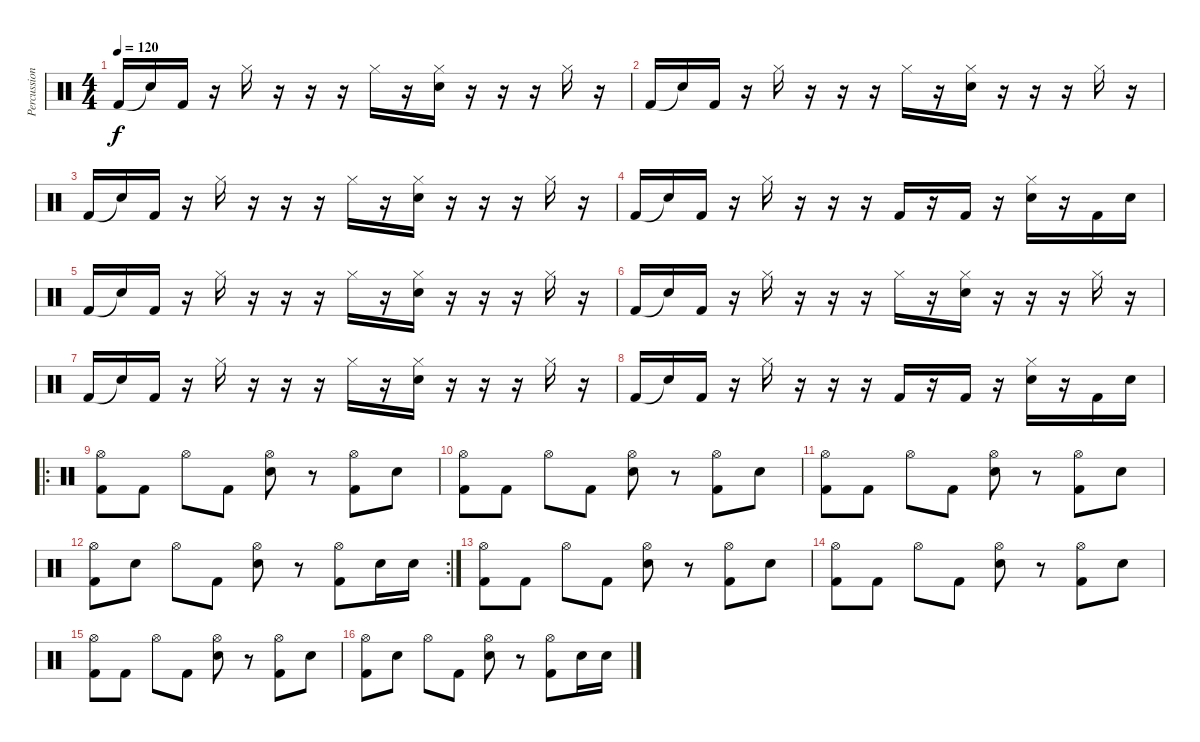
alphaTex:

\track ("Percussion" "Percussion") {instrument percussion}
\staff {score}
\articulation defaults
\ts (4 4)
\tempo 120
\clef neutral
\ks c "Kick (hit) 2".16{dy f volume 16} "Snare (hit)"{t}.16 "Kick (hit) 2".16
r.16 "Hi-Hat (closed)".16 r.16 r.16 r.16 "Hi-Hat (closed)".16 r.16 ("Hi-Hat (closed)" "Snare (hit) 2").16 r.16 r.16 r.16 "Hi-Hat (closed)".16 r.16 |
"Kick (hit) 2".16{volume 16} "Snare (hit)"{t}.16 "Kick (hit) 2".16 r.16 "Hi-Hat (closed)".16 r.16 r.16 r.16 "Hi-Hat (closed)".16 r.16 ("Hi-Hat (closed)" "Snare (hit) 2").16 r.16 r.16 r.16 "Hi-Hat (closed)".16 r.16 |
"Kick (hit) 2".16{volume 16} "Snare (hit)"{t}.16 "Kick (hit) 2".16 r.16 "Hi-Hat (closed)".16 r.16 r.16 r.16 "Hi-Hat (closed)".16 r.16 ("Hi-Hat (closed)" "Snare (hit) 2").16 r.16 r.16 r.16 "Hi-Hat (closed)".16 r.16 |
"Kick (hit) 2".16{volume 16} "Snare (hit)"{t}.16 "Kick (hit) 2".16 r.16 "Hi-Hat (closed)".16 r.16 r.16 r.16 "Kick (hit) 2".16 r.16 "Kick (hit) 2".16 r.16 ("Hi-Hat (closed)" "Snare (hit) 2").16 r.16 "Kick (hit) 2".16 "Snare (hit) 2".16 |
"Kick (hit) 2".16{volume 16} "Snare (hit)"{t}.16 "Kick (hit) 2".16 r.16 "Hi-Hat (closed)".16 r.16 r.16 r.16 "Hi-Hat (closed)".16 r.16 ("Hi-Hat (closed)" "Snare (hit) 2").16 r.16 r.16 r.16 "Hi-Hat (closed)".16 r.16 |
"Kick (hit) 2".16{volume 16} "Snare (hit)"{t}.16 "Kick (hit) 2".16 r.16 "Hi-Hat (closed)".16 r.16 r.16 r.16 "Hi-Hat (closed)".16 r.16 ("Hi-Hat (closed)" "Snare (hit) 2").16 r.16 r.16 r.16 "Hi-Hat (closed)".16 r.16 |
"Kick (hit) 2".16{volume 16} "Snare (hit)"{t}.16 "Kick (hit) 2".16 r.16 "Hi-Hat (closed)".16 r.16 r.16 r.16 "Hi-Hat (closed)".16 r.16 ("Hi-Hat (closed)" "Snare (hit) 2").16 r.16 r.16 r.16 "Hi-Hat (closed)".16 r.16 |
"Kick (hit) 2".16{volume 16} "Snare (hit)"{t}.16 "Kick (hit) 2".16 r.16 "Hi-Hat (closed)".16 r.16 r.16 r.16 "Kick (hit) 2".16 r.16 "Kick (hit) 2".16 r.16 ("Hi-Hat (closed)" "Snare (hit) 2").16 r.16 "Kick (hit) 2".16 "Snare (hit) 2".16 |
\ro
("Hi-Hat (open)" "Kick (hit) 2").8{volume 13} "Kick (hit) 2".8 "Hi-Hat (open)".8 "Kick (hit) 2".8 ("Hi-Hat (open)" "Snare (hit) 2").8 r.8 ("Hi-Hat (open)" "Kick (hit) 2").8 "Snare (hit) 2".8 |
("Hi-Hat (open)" "Kick (hit) 2").8 "Kick (hit) 2".8 "Hi-Hat (open)".8 "Kick (hit) 2".8 ("Hi-Hat (open)" "Snare (hit) 2").8 r.8 ("Hi-Hat (open)" "Kick (hit) 2").8 "Snare (hit) 2".8 |
("Hi-Hat (open)" "Kick (hit) 2").8 "Kick (hit) 2".8 "Hi-Hat (open)".8 "Kick (hit) 2".8 ("Hi-Hat (open)" "Snare (hit) 2").8 r.8 ("Hi-Hat (open)" "Kick (hit) 2").8 "Snare (hit) 2".8 |
\rc 2
("Hi-Hat (open)" "Kick (hit) 2").8 "Snare (hit) 2".8 "Hi-Hat (open)".8 "Kick (hit) 2".8 ("Hi-Hat (open)" "Snare (hit) 2").8 r.8 ("Hi-Hat (open)" "Kick (hit) 2").8 "Snare (hit) 2".16 "Snare (hit) 2".16 |
("Hi-Hat (open)" "Kick (hit) 2").8{volume 13} "Kick (hit) 2".8 "Hi-Hat (open)".8 "Kick (hit) 2".8 ("Hi-Hat (open)" "Snare (hit) 2").8 r.8 ("Hi-Hat (open)" "Kick (hit) 2").8 "Snare (hit) 2".8 |
("Hi-Hat (open)" "Kick (hit) 2").8 "Kick (hit) 2".8 "Hi-Hat (open)".8 "Kick (hit) 2".8 ("Hi-Hat (open)" "Snare (hit) 2").8 r.8 ("Hi-Hat (open)" "Kick (hit) 2").8 "Snare (hit) 2".8 |
("Hi-Hat (open)" "Kick (hit) 2").8 "Kick (hit) 2".8 "Hi-Hat (open)".8 "Kick (hit) 2".8 ("Hi-Hat (open)" "Snare (hit) 2").8 r.8 ("Hi-Hat (open)" "Kick (hit) 2").8 "Snare (hit) 2".8 |
("Hi-Hat (open)" "Kick (hit) 2").8 "Snare (hit) 2".8 "Hi-Hat (open)".8 "Kick (hit) 2".8 ("Hi-Hat (open)" "Snare (hit) 2").8 r.8 ("Hi-Hat (open)" "Kick (hit) 2").8 "Snare (hit) 2".16 "Snare (hit) 2".16
